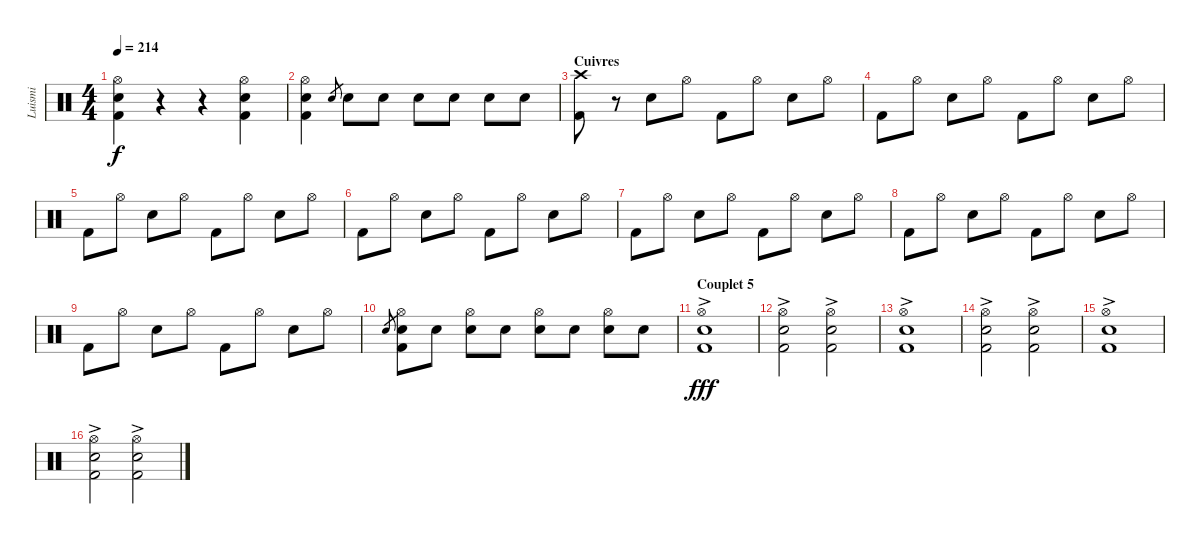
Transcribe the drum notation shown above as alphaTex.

\track ("Luismi" "Luismi") {instrument percussion}
\staff {score}
\articulation defaults
\ts (4 4)
\tempo 214
\clef neutral
\ks c
("Hi-Hat (open)" "Snare (hit) 2" "Kick (hit) 2").4{dy f} r.4 r.4 ("Hi-Hat (open)" "Snare (hit) 2" "Kick (hit) 2").4 |
("Hi-Hat (open)" "Snare (hit) 2" "Kick (hit) 2").4 "Snare (hit) 2".8{gr} "Snare (hit) 2".8 "Snare (hit) 2".8 "Snare (hit) 2".8 "Snare (hit) 2".8 "Snare (hit) 2".8 "Snare (hit) 2".8 |
\section ("" "Cuivres")
("Crash high (hit)" "Kick (hit) 2").8 r.8 "Snare (hit) 2".8 "Hi-Hat (open)".8 "Kick (hit) 2".8 "Hi-Hat (open)".8 "Snare (hit) 2".8 "Hi-Hat (open)".8 |
"Kick (hit) 2".8 "Hi-Hat (open)".8 "Snare (hit) 2".8 "Hi-Hat (open)".8 "Kick (hit) 2".8 "Hi-Hat (open)".8 "Snare (hit) 2".8 "Hi-Hat (open)".8 |
"Kick (hit) 2".8 "Hi-Hat (open)".8 "Snare (hit) 2".8 "Hi-Hat (open)".8 "Kick (hit) 2".8 "Hi-Hat (open)".8 "Snare (hit) 2".8 "Hi-Hat (open)".8 |
"Kick (hit) 2".8 "Hi-Hat (open)".8 "Snare (hit) 2".8 "Hi-Hat (open)".8 "Kick (hit) 2".8 "Hi-Hat (open)".8 "Snare (hit) 2".8 "Hi-Hat (open)".8 |
"Kick (hit) 2".8 "Hi-Hat (open)".8 "Snare (hit) 2".8 "Hi-Hat (open)".8 "Kick (hit) 2".8 "Hi-Hat (open)".8 "Snare (hit) 2".8 "Hi-Hat (open)".8 |
"Kick (hit) 2".8 "Hi-Hat (open)".8 "Snare (hit) 2".8 "Hi-Hat (open)".8 "Kick (hit) 2".8 "Hi-Hat (open)".8 "Snare (hit) 2".8 "Hi-Hat (open)".8 |
"Kick (hit) 2".8 "Hi-Hat (open)".8 "Snare (hit) 2".8 "Hi-Hat (open)".8 "Kick (hit) 2".8 "Hi-Hat (open)".8 "Snare (hit) 2".8 "Hi-Hat (open)".8 |
"Snare (hit) 2".8{gr} ("Hi-Hat (open)" "Snare (hit) 2" "Kick (hit) 2").8 "Snare (hit) 2".8 ("Hi-Hat (open)" "Snare (hit) 2").8 "Snare (hit) 2".8 ("Hi-Hat (open)" "Snare (hit) 2").8 "Snare (hit) 2".8 ("Hi-Hat (open)" "Snare (hit) 2").8 "Snare (hit) 2".8 |
\section ("" "Couplet 5")
("Hi-Hat (open)"{ac} "Snare (hit) 2" "Kick (hit) 2").1{dy fff} |
("Hi-Hat (open)"{ac} "Snare (hit) 2" "Kick (hit) 2").2 ("Hi-Hat (open)"{ac} "Snare (hit) 2" "Kick (hit) 2").2 |
("Hi-Hat (open)"{ac} "Snare (hit) 2" "Kick (hit) 2").1 |
("Hi-Hat (open)"{ac} "Snare (hit) 2" "Kick (hit) 2").2 ("Hi-Hat (open)"{ac} "Snare (hit) 2" "Kick (hit) 2").2 |
("Hi-Hat (open)"{ac} "Snare (hit) 2" "Kick (hit) 2").1 |
("Hi-Hat (open)"{ac} "Snare (hit) 2" "Kick (hit) 2").2 ("Hi-Hat (open)"{ac} "Snare (hit) 2" "Kick (hit) 2").2
